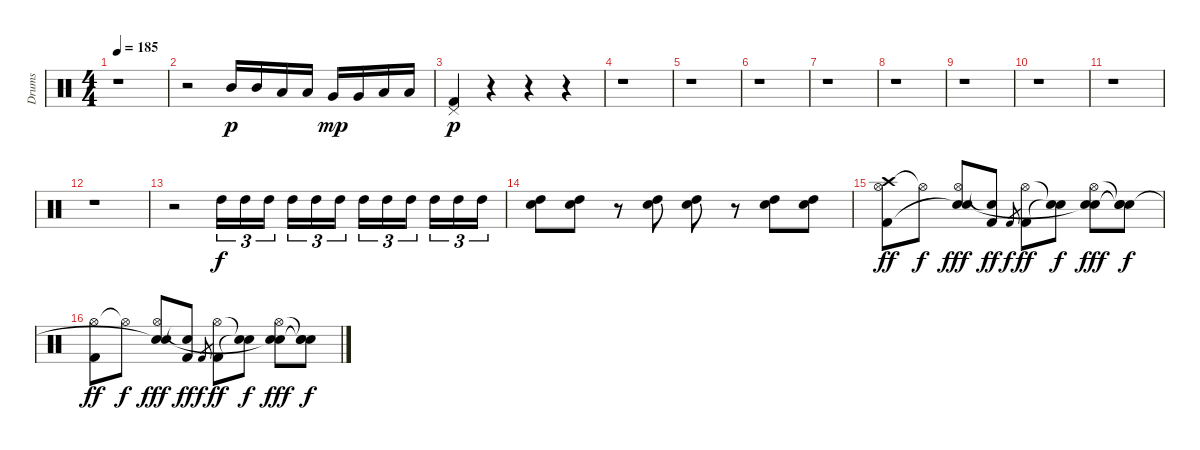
\track ("Drums" "Drums") {instrument percussion}
\staff {score}
\articulation defaults
\ts (4 4)
\tempo 185
\clef neutral
\ks c
r.1{dy f} |
r.2 "Mid Tom (hit)".16{dy p} "Mid Tom (hit)".16 "Low Tom (hit)".16 "Low Tom (hit)".16 "Very Low Tom (hit)".16{dy mp} "Very Low Tom (hit)".16 "Low Floor Tom (hit)".16 "Low Floor Tom (hit)".16 |
("Pedal Hi-Hat (hit)" "Kick (hit) 2").4{dy p} r.4 r.4 r.4 |
r.1 |
r.1 |
r.1 |
r.1 |
r.1 |
r.1 |
r.1 |
r.1 |
r.1 |
r.2 "High Tom (hit)".16{tu (3 2) dy f} "High Tom (hit)".16{tu (3 2)} "High Tom (hit)".16{tu (3 2)} "High Tom (hit)".16{tu (3 2)} "High Tom (hit)".16{tu (3 2)} "High Tom (hit)".16{tu (3 2)} "High Tom (hit)".16{tu (3 2)} "High Tom (hit)".16{tu (3 2)} "High Tom (hit)".16{tu (3 2)} "High Tom (hit)".16{tu (3 2)} "High Tom (hit)".16{tu (3 2)} "High Tom (hit)".16{tu (3 2)} |
("Electric Snare (hit)" "High Tom (hit)").8 ("Electric Snare (hit)" "High Tom (hit)").8 r.8 ("Electric Snare (hit)" "High Tom (hit)").8 ("Electric Snare (hit)" "High Tom (hit)").8 r.8 ("Electric Snare (hit)" "High Tom (hit)").8 ("Electric Snare (hit)" "High Tom (hit)").8 |
("Crash high (hit)" "Hi-Hat (open)" "Kick (hit) 2").8{dy ff} "Hi-Hat (open)"{t}.8{dy f} ("Hi-Hat (open)" "Electric Snare (hit)" "Snare (hit)"{t}).8{dy fff} ("Snare (hit)"{t} "Kick (hit) 2").8{dy ff} "Kick (hit) 2".8{gr dy f} ("Hi-Hat (open)" "Kick (hit) 2").8{dy ff} ("Snare (hit)"{t} "Snare (hit)"{t}).8{dy f} ("Hi-Hat (open)" "Electric Snare (hit)" "Snare (hit)"{t}).8{dy fff} ("Snare (hit)"{t} "Snare (hit)"{t} "Snare (hit)"{t}).8{dy f} |
("Hi-Hat (open)" "Kick (hit) 2").8{dy ff} "Hi-Hat (open)"{t}.8{dy f} ("Hi-Hat (open)" "Electric Snare (hit)" "Snare (hit)"{t}).8{dy fff} ("Snare (hit)"{t} "Kick (hit) 2").8{dy ff} "Kick (hit) 2".8{gr dy f} ("Hi-Hat (open)" "Kick (hit) 2").8{dy ff} ("Snare (hit)"{t} "Snare (hit)"{t}).8{dy f} ("Hi-Hat (open)" "Electric Snare (hit)" "Snare (hit)"{t}).8{dy fff} ("Snare (hit)"{t} "Snare (hit)"{t} "Snare (hit)"{t}).8{dy f}
